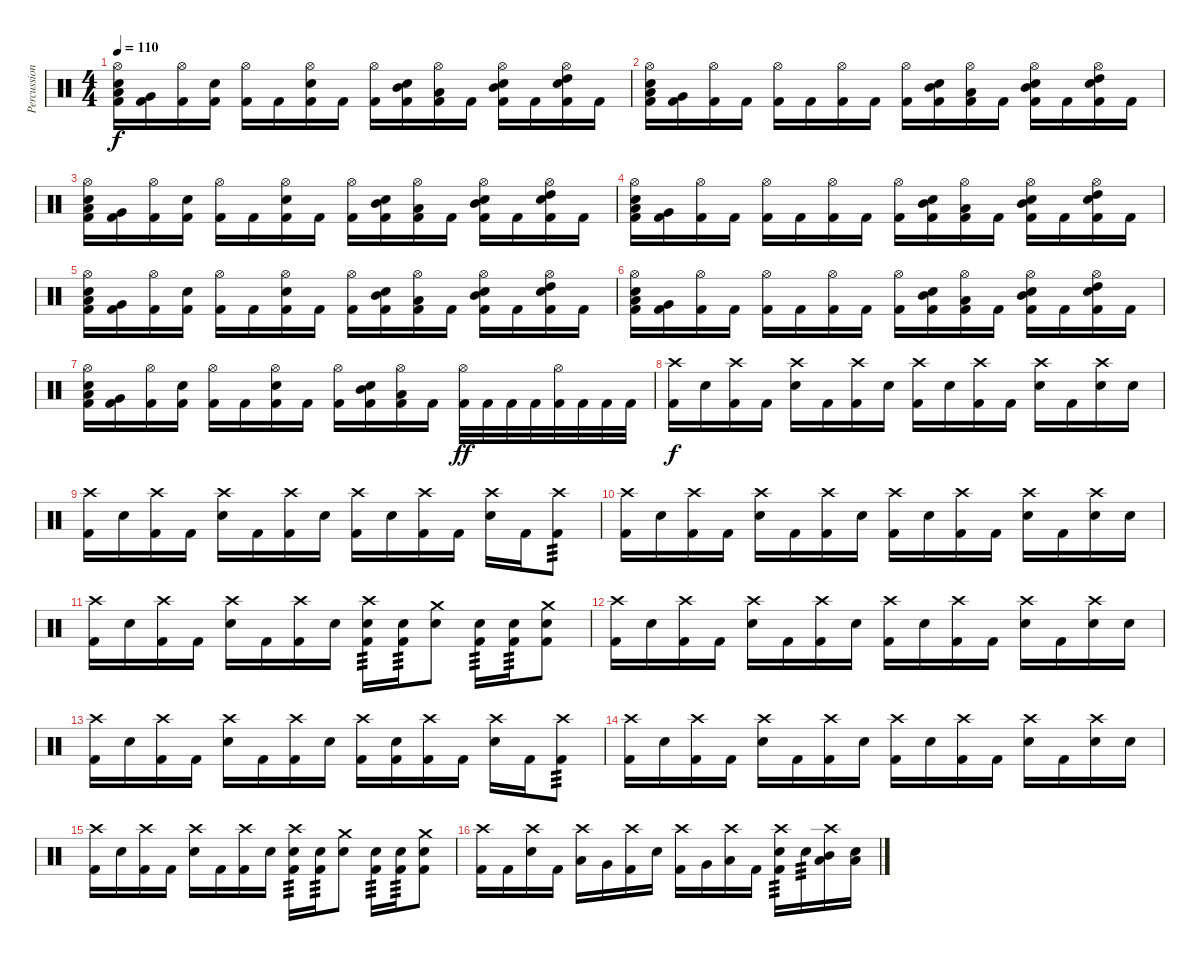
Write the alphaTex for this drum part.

\track ("Percussion" "Percussion") {instrument percussion}
\staff {score}
\articulation defaults
\ts (4 4)
\tempo 110
\clef neutral
\ks c
("Hi-Hat (open)" "Electric Snare (hit)" "Low Tom (hit)" "Kick (hit) 2").16{dy f} ("Very Low Tom (hit)" "Kick (hit) 2").16 ("Hi-Hat (open)" "Kick (hit) 2").16 ("Electric Snare (hit)" "Kick (hit) 2").16 ("Hi-Hat (open)" "Kick (hit) 2").16 "Kick (hit) 2".16 ("Hi-Hat (open)" "Electric Snare (hit)" "Kick (hit) 2").16 "Kick (hit) 2".16 ("Hi-Hat (open)" "Kick (hit) 2").16 ("Electric Snare (hit)" "Mid Tom (hit)" "Kick (hit) 2").16 ("Hi-Hat (open)" "Low Tom (hit)" "Kick (hit) 2").16 "Kick (hit) 2".16 ("Hi-Hat (open)" "Electric Snare (hit)" "Mid Tom (hit)" "Kick (hit) 2").16 "Kick (hit) 2".16 ("Hi-Hat (open)" "Electric Snare (hit)" "High Tom (hit)" "Kick (hit) 2").16 "Kick (hit) 2".16 |
("Hi-Hat (open)" "Electric Snare (hit)" "Low Tom (hit)" "Kick (hit) 2").16 ("Very Low Tom (hit)" "Kick (hit) 2").16 ("Hi-Hat (open)" "Kick (hit) 2").16 "Kick (hit) 2".16 ("Hi-Hat (open)" "Kick (hit) 2").16 "Kick (hit) 2".16 ("Hi-Hat (open)" "Kick (hit) 2").16 "Kick (hit) 2".16 ("Hi-Hat (open)" "Kick (hit) 2").16 ("Electric Snare (hit)" "Mid Tom (hit)" "Kick (hit) 2").16 ("Hi-Hat (open)" "Low Tom (hit)" "Kick (hit) 2").16 "Kick (hit) 2".16 ("Hi-Hat (open)" "Electric Snare (hit)" "Mid Tom (hit)" "Kick (hit) 2").16 "Kick (hit) 2".16 ("Hi-Hat (open)" "Electric Snare (hit)" "High Tom (hit)" "Kick (hit) 2").16 "Kick (hit) 2".16 |
("Hi-Hat (open)" "Electric Snare (hit)" "Low Tom (hit)" "Kick (hit) 2").16 ("Very Low Tom (hit)" "Kick (hit) 2").16 ("Hi-Hat (open)" "Kick (hit) 2").16 ("Electric Snare (hit)" "Kick (hit) 2").16 ("Hi-Hat (open)" "Kick (hit) 2").16 "Kick (hit) 2".16 ("Hi-Hat (open)" "Electric Snare (hit)" "Kick (hit) 2").16 "Kick (hit) 2".16 ("Hi-Hat (open)" "Kick (hit) 2").16 ("Electric Snare (hit)" "Mid Tom (hit)" "Kick (hit) 2").16 ("Hi-Hat (open)" "Low Tom (hit)" "Kick (hit) 2").16 "Kick (hit) 2".16 ("Hi-Hat (open)" "Electric Snare (hit)" "Mid Tom (hit)" "Kick (hit) 2").16 "Kick (hit) 2".16 ("Hi-Hat (open)" "Electric Snare (hit)" "High Tom (hit)" "Kick (hit) 2").16 "Kick (hit) 2".16 |
("Hi-Hat (open)" "Electric Snare (hit)" "Low Tom (hit)" "Kick (hit) 2").16 ("Very Low Tom (hit)" "Kick (hit) 2").16 ("Hi-Hat (open)" "Kick (hit) 2").16 "Kick (hit) 2".16 ("Hi-Hat (open)" "Kick (hit) 2").16 "Kick (hit) 2".16 ("Hi-Hat (open)" "Kick (hit) 2").16 "Kick (hit) 2".16 ("Hi-Hat (open)" "Kick (hit) 2").16 ("Electric Snare (hit)" "Mid Tom (hit)" "Kick (hit) 2").16 ("Hi-Hat (open)" "Low Tom (hit)" "Kick (hit) 2").16 "Kick (hit) 2".16 ("Hi-Hat (open)" "Electric Snare (hit)" "Mid Tom (hit)" "Kick (hit) 2").16 "Kick (hit) 2".16 ("Hi-Hat (open)" "Electric Snare (hit)" "High Tom (hit)" "Kick (hit) 2").16 "Kick (hit) 2".16 |
("Hi-Hat (open)" "Electric Snare (hit)" "Low Tom (hit)" "Kick (hit) 2").16 ("Very Low Tom (hit)" "Kick (hit) 2").16 ("Hi-Hat (open)" "Kick (hit) 2").16 ("Electric Snare (hit)" "Kick (hit) 2").16 ("Hi-Hat (open)" "Kick (hit) 2").16 "Kick (hit) 2".16 ("Hi-Hat (open)" "Electric Snare (hit)" "Kick (hit) 2").16 "Kick (hit) 2".16 ("Hi-Hat (open)" "Kick (hit) 2").16 ("Electric Snare (hit)" "Mid Tom (hit)" "Kick (hit) 2").16 ("Hi-Hat (open)" "Low Tom (hit)" "Kick (hit) 2").16 "Kick (hit) 2".16 ("Hi-Hat (open)" "Electric Snare (hit)" "Mid Tom (hit)" "Kick (hit) 2").16 "Kick (hit) 2".16 ("Hi-Hat (open)" "Electric Snare (hit)" "High Tom (hit)" "Kick (hit) 2").16 "Kick (hit) 2".16 |
("Hi-Hat (open)" "Electric Snare (hit)" "Low Tom (hit)" "Kick (hit) 2").16 ("Very Low Tom (hit)" "Kick (hit) 2").16 ("Hi-Hat (open)" "Kick (hit) 2").16 "Kick (hit) 2".16 ("Hi-Hat (open)" "Kick (hit) 2").16 "Kick (hit) 2".16 ("Hi-Hat (open)" "Kick (hit) 2").16 "Kick (hit) 2".16 ("Hi-Hat (open)" "Kick (hit) 2").16 ("Electric Snare (hit)" "Mid Tom (hit)" "Kick (hit) 2").16 ("Hi-Hat (open)" "Low Tom (hit)" "Kick (hit) 2").16 "Kick (hit) 2".16 ("Hi-Hat (open)" "Electric Snare (hit)" "Mid Tom (hit)" "Kick (hit) 2").16 "Kick (hit) 2".16 ("Hi-Hat (open)" "Electric Snare (hit)" "High Tom (hit)" "Kick (hit) 2").16 "Kick (hit) 2".16 |
("Hi-Hat (open)" "Electric Snare (hit)" "Low Tom (hit)" "Kick (hit) 2").16 ("Very Low Tom (hit)" "Kick (hit) 2").16 ("Hi-Hat (open)" "Kick (hit) 2").16 ("Electric Snare (hit)" "Kick (hit) 2").16 ("Hi-Hat (open)" "Kick (hit) 2").16 "Kick (hit) 2".16 ("Hi-Hat (open)" "Electric Snare (hit)" "Kick (hit) 2").16 "Kick (hit) 2".16 ("Hi-Hat (open)" "Kick (hit) 2").16 ("Electric Snare (hit)" "Mid Tom (hit)" "Kick (hit) 2").16 ("Hi-Hat (open)" "Low Tom (hit)" "Kick (hit) 2").16 "Kick (hit) 2".16 ("Hi-Hat (open)" "Kick (hit) 2").32{dy ff} "Kick (hit) 2".32 "Kick (hit) 2".32 "Kick (hit) 2".32 ("Hi-Hat (open)" "Kick (hit) 2").32 "Kick (hit) 2".32 "Kick (hit) 2".32 "Kick (hit) 2".32 |
("Crash high (hit)" "Kick (hit) 2").16{dy f} "Electric Snare (hit)".16 ("Crash high (hit)" "Kick (hit) 2").16 "Kick (hit) 2".16 ("Crash high (hit)" "Electric Snare (hit)").16 "Kick (hit) 2".16 ("Crash high (hit)" "Kick (hit) 2").16 "Electric Snare (hit)".16 ("Crash high (hit)" "Kick (hit) 2").16 "Electric Snare (hit)".16 ("Crash high (hit)" "Kick (hit) 2").16 "Kick (hit) 2".16 ("Crash high (hit)" "Electric Snare (hit)").16 "Kick (hit) 2".16 ("Crash high (hit)" "Electric Snare (hit)").16 "Electric Snare (hit)".16 |
("Crash high (hit)" "Kick (hit) 2").16 "Electric Snare (hit)".16 ("Crash high (hit)" "Kick (hit) 2").16 "Kick (hit) 2".16 ("Crash high (hit)" "Electric Snare (hit)").16 "Kick (hit) 2".16 ("Crash high (hit)" "Kick (hit) 2").16 "Electric Snare (hit)".16 ("Crash high (hit)" "Kick (hit) 2").16 "Electric Snare (hit)".16 ("Crash high (hit)" "Kick (hit) 2").16 "Kick (hit) 2".16 ("Crash high (hit)" "Electric Snare (hit)").16 "Kick (hit) 2".16 ("Crash high (hit)" "Kick (hit) 2").8{tp 3} |
("Crash high (hit)" "Kick (hit) 2").16 "Electric Snare (hit)".16 ("Crash high (hit)" "Kick (hit) 2").16 "Kick (hit) 2".16 ("Crash high (hit)" "Electric Snare (hit)").16 "Kick (hit) 2".16 ("Crash high (hit)" "Kick (hit) 2").16 "Electric Snare (hit)".16 ("Crash high (hit)" "Kick (hit) 2").16 "Electric Snare (hit)".16 ("Crash high (hit)" "Kick (hit) 2").16 "Kick (hit) 2".16 ("Crash high (hit)" "Electric Snare (hit)").16 "Kick (hit) 2".16 ("Crash high (hit)" "Electric Snare (hit)").16 "Electric Snare (hit)".16 |
("Crash high (hit)" "Kick (hit) 2").16 "Electric Snare (hit)".16 ("Crash high (hit)" "Kick (hit) 2").16 "Kick (hit) 2".16 ("Crash high (hit)" "Electric Snare (hit)").16 "Kick (hit) 2".16 ("Crash high (hit)" "Kick (hit) 2").16 "Electric Snare (hit)".16 ("Crash high (hit)" "Electric Snare (hit)" "Kick (hit) 2").16{tp 3} ("Electric Snare (hit)" "Kick (hit) 2").16{tp 3} ("Crash medium (hit)" "Electric Snare (hit)").8 ("Electric Snare (hit)" "Kick (hit) 2").16{tp 3} ("Electric Snare (hit)" "Kick (hit) 2").16{tp 3} ("Crash medium (hit)" "Electric Snare (hit)" "Kick (hit) 2").8 |
("Crash high (hit)" "Kick (hit) 2").16 "Electric Snare (hit)".16 ("Crash high (hit)" "Kick (hit) 2").16 "Kick (hit) 2".16 ("Crash high (hit)" "Electric Snare (hit)").16 "Kick (hit) 2".16 ("Crash high (hit)" "Kick (hit) 2").16 "Electric Snare (hit)".16 ("Crash high (hit)" "Kick (hit) 2").16 "Electric Snare (hit)".16 ("Crash high (hit)" "Kick (hit) 2").16 "Kick (hit) 2".16 ("Crash high (hit)" "Electric Snare (hit)").16 "Kick (hit) 2".16 ("Crash high (hit)" "Electric Snare (hit)").16 "Electric Snare (hit)".16 |
("Crash high (hit)" "Kick (hit) 2").16 "Electric Snare (hit)".16 ("Crash high (hit)" "Kick (hit) 2").16 "Kick (hit) 2".16 ("Crash high (hit)" "Electric Snare (hit)").16 "Kick (hit) 2".16 ("Crash high (hit)" "Kick (hit) 2").16 "Electric Snare (hit)".16 ("Crash high (hit)" "Kick (hit) 2").16 ("Electric Snare (hit)" "Kick (hit) 2").16 ("Crash high (hit)" "Kick (hit) 2").16 "Kick (hit) 2".16 ("Crash high (hit)" "Electric Snare (hit)").16 "Kick (hit) 2".16 ("Crash high (hit)" "Kick (hit) 2").8{tp 3} |
("Crash high (hit)" "Kick (hit) 2").16 "Electric Snare (hit)".16 ("Crash high (hit)" "Kick (hit) 2").16 "Kick (hit) 2".16 ("Crash high (hit)" "Electric Snare (hit)").16 "Kick (hit) 2".16 ("Crash high (hit)" "Kick (hit) 2").16 "Electric Snare (hit)".16 ("Crash high (hit)" "Kick (hit) 2").16 "Electric Snare (hit)".16 ("Crash high (hit)" "Kick (hit) 2").16 "Kick (hit) 2".16 ("Crash high (hit)" "Electric Snare (hit)").16 "Kick (hit) 2".16 ("Crash high (hit)" "Electric Snare (hit)").16 "Electric Snare (hit)".16 |
("Crash high (hit)" "Kick (hit) 2").16 "Electric Snare (hit)".16 ("Crash high (hit)" "Kick (hit) 2").16 "Kick (hit) 2".16 ("Crash high (hit)" "Electric Snare (hit)").16 "Kick (hit) 2".16 ("Crash high (hit)" "Kick (hit) 2").16 "Electric Snare (hit)".16 ("Crash high (hit)" "Electric Snare (hit)" "Kick (hit) 2").16{tp 3} ("Electric Snare (hit)" "Kick (hit) 2").16{tp 3} ("Crash medium (hit)" "Electric Snare (hit)").8 ("Electric Snare (hit)" "Kick (hit) 2").16{tp 3} ("Electric Snare (hit)" "Kick (hit) 2").16{tp 3} ("Crash medium (hit)" "Electric Snare (hit)" "Kick (hit) 2").8 |
\section ("" "")
("Crash high (hit)" "Kick (hit) 2").16 "Kick (hit) 2".16 ("Crash high (hit)" "Electric Snare (hit)").16 "Kick (hit) 2".16 ("Crash high (hit)" "Low Tom (hit)").16 "Very Low Tom (hit)".16 ("Crash high (hit)" "Kick (hit) 2").16 "Electric Snare (hit)".16 ("Crash high (hit)" "Kick (hit) 2").16 "Very Low Tom (hit)".16 ("Crash high (hit)" "Low Floor Tom (hit)").16 "Kick (hit) 2".16 ("Crash high (hit)" "Electric Snare (hit)" "Kick (hit) 2").16{tp 3} "Electric Snare (hit)".16{tp 3} ("Crash high (hit)" "Low Tom (hit)" "Mid Tom (hit)").16 ("Electric Snare (hit)" "Low Tom (hit)").16
